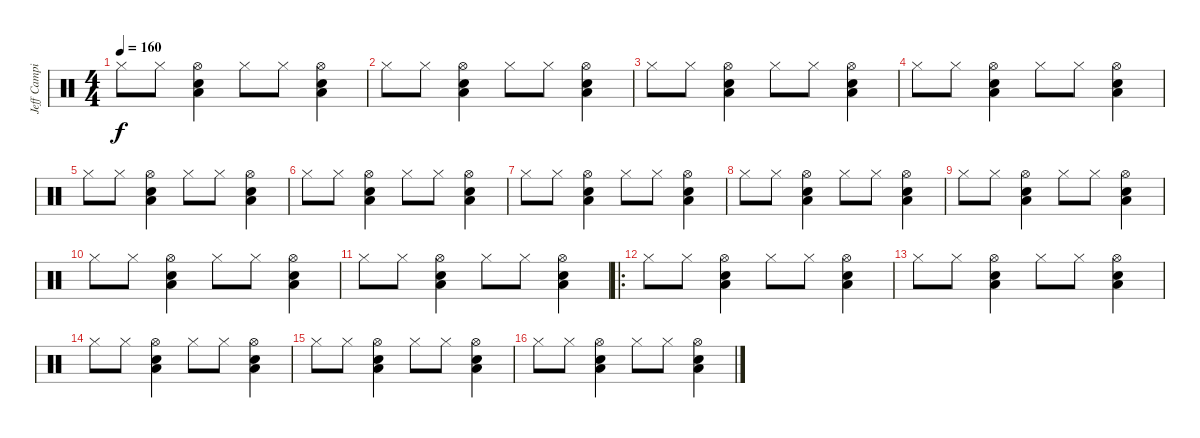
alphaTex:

\track ("Jeff Campitelli" "Jeff Campi") {instrument percussion}
\staff {score}
\articulation defaults
\ts (4 4)
\tempo 160
\clef neutral
\ks c "Hi-Hat (closed)".8{dy f} "Hi-Hat (closed)".8
("Low Floor Tom (hit)" "Snare (hit) 2" "Hi-Hat (open)").4 "Hi-Hat (closed)".8 "Hi-Hat (closed)".8 ("Low Floor Tom (hit)" "Snare (hit) 2" "Hi-Hat (open)").4 |
"Hi-Hat (closed)".8 "Hi-Hat (closed)".8 ("Low Floor Tom (hit)" "Snare (hit) 2" "Hi-Hat (open)").4 "Hi-Hat (closed)".8 "Hi-Hat (closed)".8 ("Low Floor Tom (hit)" "Snare (hit) 2" "Hi-Hat (open)").4 |
"Hi-Hat (closed)".8 "Hi-Hat (closed)".8 ("Low Floor Tom (hit)" "Snare (hit) 2" "Hi-Hat (open)").4 "Hi-Hat (closed)".8 "Hi-Hat (closed)".8 ("Low Floor Tom (hit)" "Snare (hit) 2" "Hi-Hat (open)").4 |
"Hi-Hat (closed)".8 "Hi-Hat (closed)".8 ("Low Floor Tom (hit)" "Snare (hit) 2" "Hi-Hat (open)").4 "Hi-Hat (closed)".8 "Hi-Hat (closed)".8 ("Low Floor Tom (hit)" "Snare (hit) 2" "Hi-Hat (open)").4 |
"Hi-Hat (closed)".8 "Hi-Hat (closed)".8 ("Low Floor Tom (hit)" "Snare (hit) 2" "Hi-Hat (open)").4 "Hi-Hat (closed)".8 "Hi-Hat (closed)".8 ("Low Floor Tom (hit)" "Snare (hit) 2" "Hi-Hat (open)").4 |
"Hi-Hat (closed)".8 "Hi-Hat (closed)".8 ("Low Floor Tom (hit)" "Snare (hit) 2" "Hi-Hat (open)").4 "Hi-Hat (closed)".8 "Hi-Hat (closed)".8 ("Low Floor Tom (hit)" "Snare (hit) 2" "Hi-Hat (open)").4 |
"Hi-Hat (closed)".8 "Hi-Hat (closed)".8 ("Low Floor Tom (hit)" "Snare (hit) 2" "Hi-Hat (open)").4 "Hi-Hat (closed)".8 "Hi-Hat (closed)".8 ("Low Floor Tom (hit)" "Snare (hit) 2" "Hi-Hat (open)").4 |
"Hi-Hat (closed)".8 "Hi-Hat (closed)".8 ("Low Floor Tom (hit)" "Snare (hit) 2" "Hi-Hat (open)").4 "Hi-Hat (closed)".8 "Hi-Hat (closed)".8 ("Low Floor Tom (hit)" "Snare (hit) 2" "Hi-Hat (open)").4 |
"Hi-Hat (closed)".8 "Hi-Hat (closed)".8 ("Low Floor Tom (hit)" "Snare (hit) 2" "Hi-Hat (open)").4 "Hi-Hat (closed)".8 "Hi-Hat (closed)".8 ("Low Floor Tom (hit)" "Snare (hit) 2" "Hi-Hat (open)").4 |
"Hi-Hat (closed)".8 "Hi-Hat (closed)".8 ("Low Floor Tom (hit)" "Snare (hit) 2" "Hi-Hat (open)").4 "Hi-Hat (closed)".8 "Hi-Hat (closed)".8 ("Low Floor Tom (hit)" "Snare (hit) 2" "Hi-Hat (open)").4 |
"Hi-Hat (closed)".8 "Hi-Hat (closed)".8 ("Low Floor Tom (hit)" "Snare (hit) 2" "Hi-Hat (open)").4 "Hi-Hat (closed)".8 "Hi-Hat (closed)".8 ("Low Floor Tom (hit)" "Snare (hit) 2" "Hi-Hat (open)").4 |
\ro "Hi-Hat (closed)".8 "Hi-Hat (closed)".8
("Low Floor Tom (hit)" "Snare (hit) 2" "Hi-Hat (open)").4 "Hi-Hat (closed)".8 "Hi-Hat (closed)".8 ("Low Floor Tom (hit)" "Snare (hit) 2" "Hi-Hat (open)").4 |
"Hi-Hat (closed)".8 "Hi-Hat (closed)".8 ("Low Floor Tom (hit)" "Snare (hit) 2" "Hi-Hat (open)").4 "Hi-Hat (closed)".8 "Hi-Hat (closed)".8 ("Low Floor Tom (hit)" "Snare (hit) 2" "Hi-Hat (open)").4 |
"Hi-Hat (closed)".8 "Hi-Hat (closed)".8 ("Low Floor Tom (hit)" "Snare (hit) 2" "Hi-Hat (open)").4 "Hi-Hat (closed)".8 "Hi-Hat (closed)".8 ("Low Floor Tom (hit)" "Snare (hit) 2" "Hi-Hat (open)").4 |
"Hi-Hat (closed)".8 "Hi-Hat (closed)".8 ("Low Floor Tom (hit)" "Snare (hit) 2" "Hi-Hat (open)").4 "Hi-Hat (closed)".8 "Hi-Hat (closed)".8 ("Low Floor Tom (hit)" "Snare (hit) 2" "Hi-Hat (open)").4 |
"Hi-Hat (closed)".8 "Hi-Hat (closed)".8 ("Low Floor Tom (hit)" "Snare (hit) 2" "Hi-Hat (open)").4 "Hi-Hat (closed)".8 "Hi-Hat (closed)".8 ("Low Floor Tom (hit)" "Snare (hit) 2" "Hi-Hat (open)").4
